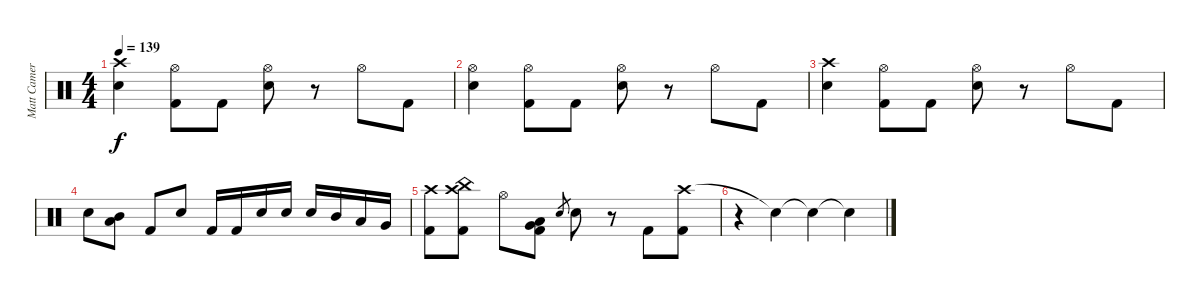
\track ("Matt Cameron" "Matt Camer") {instrument percussion}
\staff {score}
\articulation defaults
\ts (4 4)
\tempo 139
\clef neutral
\ks c
("Crash high (hit)" "Snare (hit) 2").4{dy f} ("Hi-Hat (open)" "Kick (hit) 2").8 "Kick (hit) 2".8 ("Hi-Hat (open)" "Snare (hit) 2").8 r.8 "Hi-Hat (open)".8 "Kick (hit) 2".8 |
("Hi-Hat (open)" "Snare (hit) 2").4 ("Hi-Hat (open)" "Kick (hit) 2").8 "Kick (hit) 2".8 ("Hi-Hat (open)" "Snare (hit) 2").8 r.8 "Hi-Hat (open)".8 "Kick (hit) 2".8 |
("Crash high (hit)" "Snare (hit) 2").4 ("Hi-Hat (open)" "Kick (hit) 2").8 "Kick (hit) 2".8 ("Hi-Hat (open)" "Snare (hit) 2").8 r.8 "Hi-Hat (open)".8 "Kick (hit) 2".8 |
"Snare (hit) 2".8 ("Mid Tom (hit)" "Low Tom (hit)").8 "Kick (hit) 2".8 "Snare (hit) 2".8 "Kick (hit) 2".16 "Kick (hit) 2".16 "Snare (hit) 2".16 "Snare (hit) 2".16 "Snare (hit) 2".16 "Mid Tom (hit)".16 "Low Tom (hit)".16 "Very Low Tom (hit)".16 |
("Crash high (hit)" "Kick (hit) 2").8 ("Crash high (hit)" "China (hit)" "Kick (hit) 2").8 "Hi-Hat (open)".8 ("Very Low Tom (hit)" "Low Floor Tom (hit)" "Kick (hit) 2").8 "Snare (hit) 2".8{gr} "Snare (hit) 2".8 r.8 "Kick (hit) 2".8 ("Crash high (hit)" "Kick (hit) 2").8 |
r.4 "Snare (hit)"{t}.4 "Snare (hit)"{t}.4 "Snare (hit)"{t}.4
